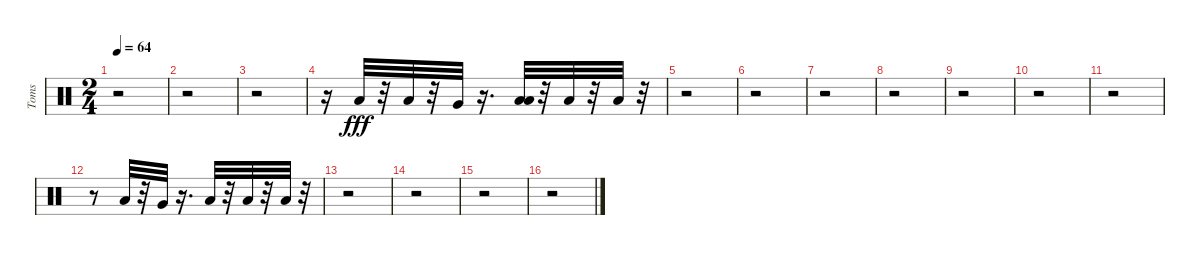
\track ("Toms" "Toms") {instrument percussion}
\staff {score}
\articulation defaults
\ts (2 4)
\tempo 64
\clef neutral
\ks c
r.2{dy fff} |
r.2 |
r.2 |
r.16 "Low Tom (hit)".32 r.32 "Low Tom (hit)".32 r.32 "Very Low Tom (hit)".32 r.16{d} ("Low Floor Tom (hit)" "Low Floor Tom (hit)").32 r.32 "Low Floor Tom (hit)".32 r.32 "Low Floor Tom (hit)".32 r.32 |
r.2 |
r.2 |
r.2 |
r.2 |
r.2 |
r.2 |
r.2 |
r.8 "Low Tom (hit)".32 r.32 "Very Low Tom (hit)".32 r.16{d} "Low Floor Tom (hit)".32 r.32 "Low Floor Tom (hit)".32 r.32 "Low Floor Tom (hit)".32 r.32 |
r.2 |
r.2 |
r.2 |
r.2
